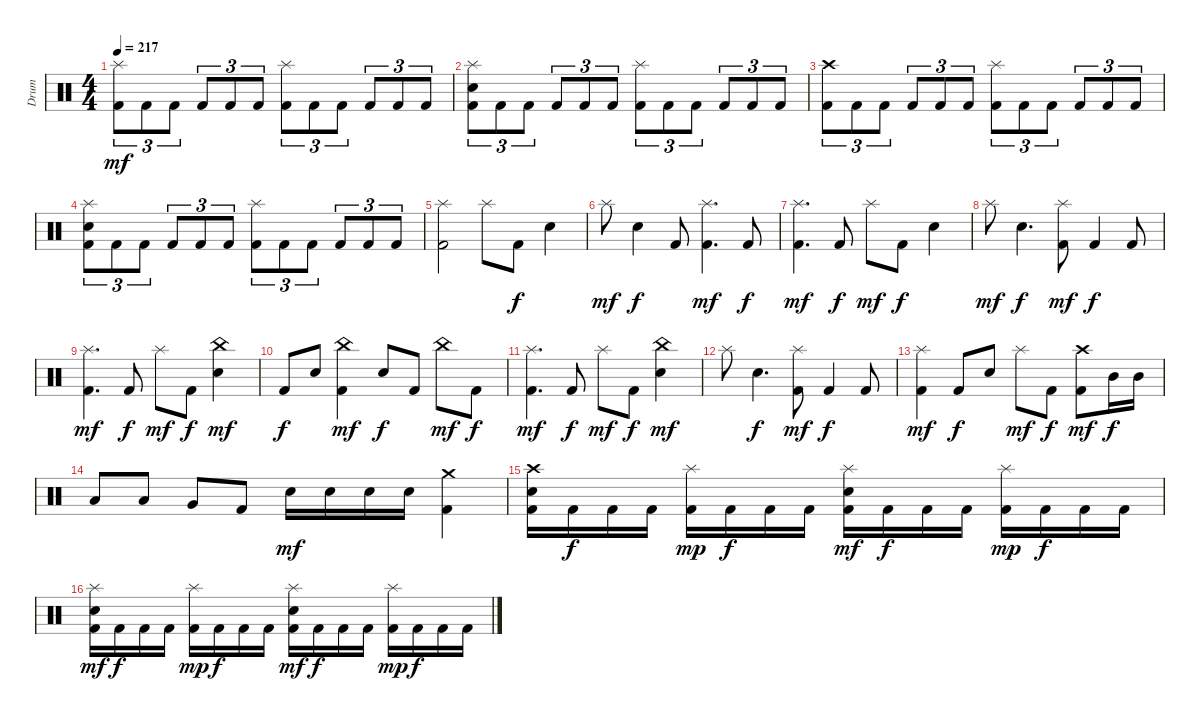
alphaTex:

\track ("Drum" "Drum") {instrument percussion}
\staff {score}
\articulation defaults
\ts (4 4)
\tempo 217
\clef neutral
\ks c
("Splash (hit)" "Kick (hit) 2").8{tu (3 2) dy mf} "Kick (hit) 2".8{tu (3 2)} "Kick (hit) 2".8{tu (3 2)} "Kick (hit) 2".8{tu (3 2)} "Kick (hit) 2".8{tu (3 2)} "Kick (hit) 2".8{tu (3 2)} ("Splash (hit)" "Kick (hit) 2").8{tu (3 2)} "Kick (hit) 2".8{tu (3 2)} "Kick (hit) 2".8{tu (3 2)} "Kick (hit) 2".8{tu (3 2)} "Kick (hit) 2".8{tu (3 2)} "Kick (hit) 2".8{tu (3 2)} |
("Splash (hit)" "Electric Snare (hit)" "Kick (hit) 2").8{tu (3 2)} "Kick (hit) 2".8{tu (3 2)} "Kick (hit) 2".8{tu (3 2)} "Kick (hit) 2".8{tu (3 2)} "Kick (hit) 2".8{tu (3 2)} "Kick (hit) 2".8{tu (3 2)} ("Splash (hit)" "Kick (hit) 2").8{tu (3 2)} "Kick (hit) 2".8{tu (3 2)} "Kick (hit) 2".8{tu (3 2)} "Kick (hit) 2".8{tu (3 2)} "Kick (hit) 2".8{tu (3 2)} "Kick (hit) 2".8{tu (3 2)} |
("Crash high (hit)" "Kick (hit) 2").8{tu (3 2)} "Kick (hit) 2".8{tu (3 2)} "Kick (hit) 2".8{tu (3 2)} "Kick (hit) 2".8{tu (3 2)} "Kick (hit) 2".8{tu (3 2)} "Kick (hit) 2".8{tu (3 2)} ("Splash (hit)" "Kick (hit) 2").8{tu (3 2)} "Kick (hit) 2".8{tu (3 2)} "Kick (hit) 2".8{tu (3 2)} "Kick (hit) 2".8{tu (3 2)} "Kick (hit) 2".8{tu (3 2)} "Kick (hit) 2".8{tu (3 2)} |
("Splash (hit)" "Electric Snare (hit)" "Kick (hit) 2").8{tu (3 2)} "Kick (hit) 2".8{tu (3 2)} "Kick (hit) 2".8{tu (3 2)} "Kick (hit) 2".8{tu (3 2)} "Kick (hit) 2".8{tu (3 2)} "Kick (hit) 2".8{tu (3 2)} ("Splash (hit)" "Kick (hit) 2").8{tu (3 2)} "Kick (hit) 2".8{tu (3 2)} "Kick (hit) 2".8{tu (3 2)} "Kick (hit) 2".8{tu (3 2)} "Kick (hit) 2".8{tu (3 2)} "Kick (hit) 2".8{tu (3 2)} |
("Splash (hit)" "Kick (hit) 2").2 "Splash (hit)".8 "Kick (hit) 2".8{dy f} "Electric Snare (hit)".4 |
"Splash (hit)".8{dy mf} "Electric Snare (hit)".4{dy f} "Kick (hit) 2".8 ("Splash (hit)" "Kick (hit) 2").4{d dy mf} "Kick (hit) 2".8{dy f} |
("Splash (hit)" "Kick (hit) 2").4{d dy mf} "Kick (hit) 2".8{dy f} "Splash (hit)".8{dy mf} "Kick (hit) 2".8{dy f} "Electric Snare (hit)".4 |
"Splash (hit)".8{dy mf} "Electric Snare (hit)".4{d dy f} ("Splash (hit)" "Kick (hit) 2").8{dy mf} "Kick (hit) 2".4{dy f} "Kick (hit) 2".8 |
("Splash (hit)" "Kick (hit) 2").4{d dy mf} "Kick (hit) 2".8{dy f} "Splash (hit)".8{dy mf} "Kick (hit) 2".8{dy f} ("China (hit)" "Electric Snare (hit)").4{dy mf} |
"Kick (hit) 2".8{dy f} "Electric Snare (hit)".8 ("China (hit)" "Kick (hit) 2").4{dy mf} "Electric Snare (hit)".8{dy f} "Kick (hit) 2".8 "China (hit)".8{dy mf} "Kick (hit) 2".8{dy f} |
("Splash (hit)" "Kick (hit) 2").4{d dy mf} "Kick (hit) 2".8{dy f} "Splash (hit)".8{dy mf} "Kick (hit) 2".8{dy f} ("China (hit)" "Electric Snare (hit)").4{dy mf} |
"Splash (hit)".8 "Electric Snare (hit)".4{d dy f} ("Splash (hit)" "Kick (hit) 2").8{dy mf} "Kick (hit) 2".4{dy f} "Kick (hit) 2".8 |
("Splash (hit)" "Kick (hit) 2").4{dy mf} "Kick (hit) 2".8{dy f} "Electric Snare (hit)".8 "Splash (hit)".8{dy mf} "Kick (hit) 2".8{dy f} ("Crash high (hit)" "Kick (hit) 2").8{dy mf} "Mid Tom (hit)".16{dy f} "Mid Tom (hit)".16 |
"Low Tom (hit)".8 "Low Tom (hit)".8 "Very Low Tom (hit)".8 "Kick (hit) 2".8 "Electric Snare (hit)".16{dy mf} "Electric Snare (hit)".16 "Electric Snare (hit)".16 "Electric Snare (hit)".16 ("Crash medium (hit)" "Kick (hit) 2").4 |
("Crash high (hit)" "Electric Snare (hit)" "Kick (hit) 2").16 "Kick (hit) 2".16{dy f} "Kick (hit) 2".16 "Kick (hit) 2".16 ("Splash (hit)" "Kick (hit) 2").16{dy mp} "Kick (hit) 2".16{dy f} "Kick (hit) 2".16 "Kick (hit) 2".16 ("Splash (hit)" "Electric Snare (hit)" "Kick (hit) 2").16{dy mf} "Kick (hit) 2".16{dy f} "Kick (hit) 2".16 "Kick (hit) 2".16 ("Splash (hit)" "Kick (hit) 2").16{dy mp} "Kick (hit) 2".16{dy f} "Kick (hit) 2".16 "Kick (hit) 2".16 |
("Splash (hit)" "Electric Snare (hit)" "Kick (hit) 2").16{dy mf} "Kick (hit) 2".16{dy f} "Kick (hit) 2".16 "Kick (hit) 2".16 ("Splash (hit)" "Kick (hit) 2").16{dy mp} "Kick (hit) 2".16{dy f} "Kick (hit) 2".16 "Kick (hit) 2".16 ("Splash (hit)" "Electric Snare (hit)" "Kick (hit) 2").16{dy mf} "Kick (hit) 2".16{dy f} "Kick (hit) 2".16 "Kick (hit) 2".16 ("Splash (hit)" "Kick (hit) 2").16{dy mp} "Kick (hit) 2".16{dy f} "Kick (hit) 2".16 "Kick (hit) 2".16
